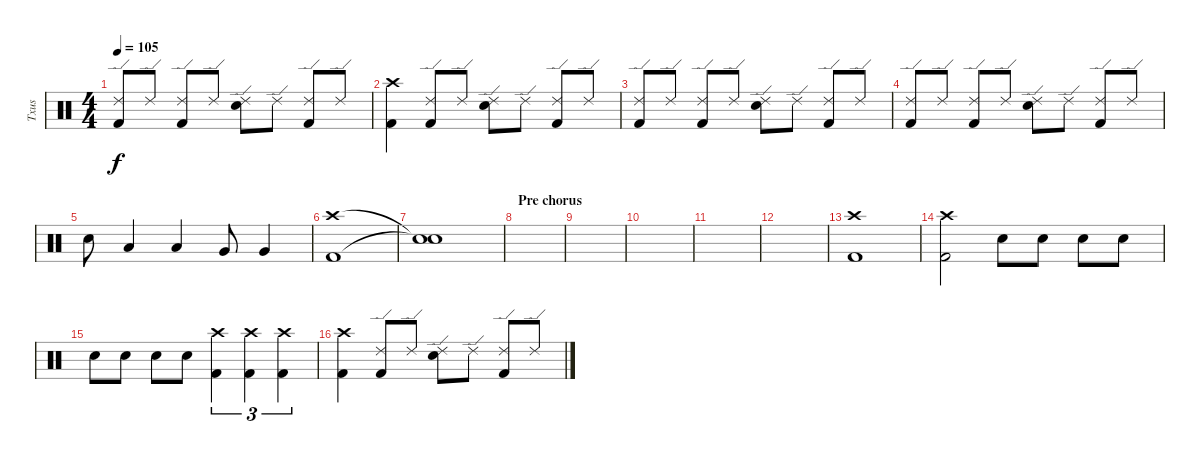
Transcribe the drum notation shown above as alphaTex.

\track ("Txus" "Txus") {instrument percussion}
\staff {score}
\articulation defaults
\ts (4 4)
\tempo 105
\clef neutral
\ks c
("Ride (edge) 2" "Kick (hit) 2").8{dy f} "Ride (edge) 2".8 ("Ride (edge) 2" "Kick (hit) 2").8 "Ride (edge) 2".8 ("Ride (edge) 2" "Electric Snare (hit)").8 "Ride (edge) 2".8 ("Ride (edge) 2" "Kick (hit) 2").8 "Ride (edge) 2".8 |
("Crash high (hit)" "Kick (hit) 2").4 ("Ride (edge) 2" "Kick (hit) 2").8 "Ride (edge) 2".8 ("Ride (edge) 2" "Electric Snare (hit)").8 "Ride (edge) 2".8 ("Ride (edge) 2" "Kick (hit) 2").8 "Ride (edge) 2".8 |
("Ride (edge) 2" "Kick (hit) 2").8 "Ride (edge) 2".8 ("Ride (edge) 2" "Kick (hit) 2").8 "Ride (edge) 2".8 ("Ride (edge) 2" "Electric Snare (hit)").8 "Ride (edge) 2".8 ("Ride (edge) 2" "Kick (hit) 2").8 "Ride (edge) 2".8 |
("Ride (edge) 2" "Kick (hit) 2").8 "Ride (edge) 2".8 ("Ride (edge) 2" "Kick (hit) 2").8 "Ride (edge) 2".8 ("Ride (edge) 2" "Electric Snare (hit)").8 "Ride (edge) 2".8 ("Ride (edge) 2" "Kick (hit) 2").8 "Ride (edge) 2".8 |
"Electric Snare (hit)".8 "Low Tom (hit)".4 "Low Tom (hit)".4 "Very Low Tom (hit)".8 "Very Low Tom (hit)".4 |
("Crash high (hit)" "Kick (hit) 2").1 |
("Snare (hit)"{t} "Snare (hit)"{t}).1 |
\section ("" "Pre chorus")
|
|
|
|
|
("Crash high (hit)" "Kick (hit) 2").1 |
("Crash high (hit)" "Kick (hit) 2").2 "Electric Snare (hit)".8 "Electric Snare (hit)".8 "Electric Snare (hit)".8 "Electric Snare (hit)".8 |
"Electric Snare (hit)".8 "Electric Snare (hit)".8 "Electric Snare (hit)".8 "Electric Snare (hit)".8 ("Crash high (hit)" "Kick (hit) 2").4{tu (3 2)} ("Crash high (hit)" "Kick (hit) 2").4{tu (3 2)} ("Crash high (hit)" "Kick (hit) 2").4{tu (3 2)} |
("Crash high (hit)" "Kick (hit) 2").4 ("Ride (edge) 2" "Kick (hit) 2").8 "Ride (edge) 2".8 ("Ride (edge) 2" "Electric Snare (hit)").8 "Ride (edge) 2".8 ("Ride (edge) 2" "Kick (hit) 2").8 "Ride (edge) 2".8
